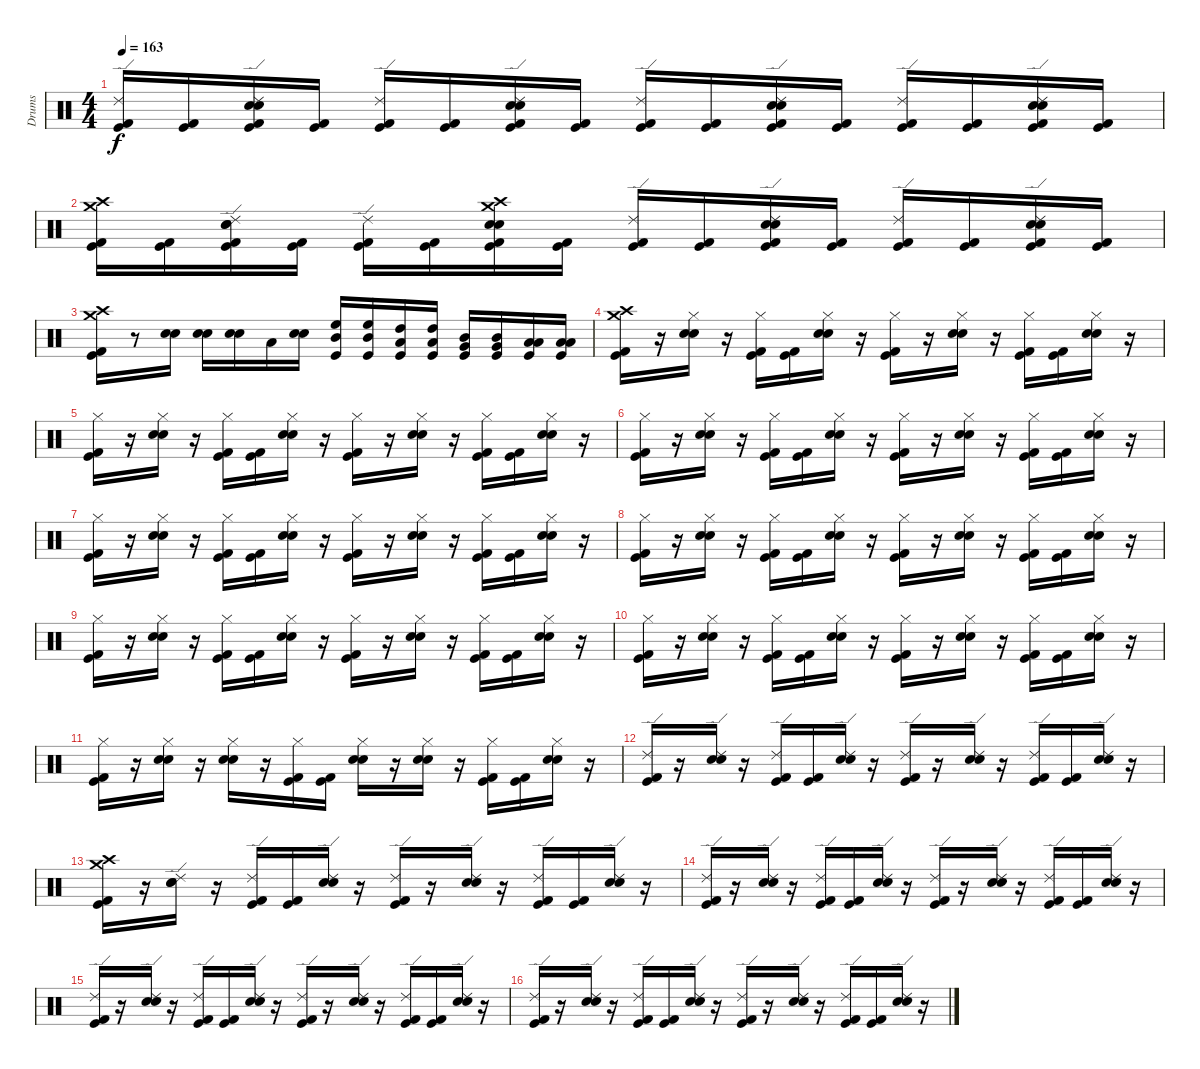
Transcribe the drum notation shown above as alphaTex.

\track ("Drums" "Drums") {instrument percussion}
\staff {score}
\articulation defaults
\ts (4 4)
\tempo 163
\clef neutral
\ks c
("Ride (edge) 2" "Kick (hit) 2" "Kick (hit)").16{dy f} ("Kick (hit) 2" "Kick (hit)").16 ("Electric Snare (hit)" "Snare (hit) 2" "Ride (edge) 2" "Kick (hit) 2" "Kick (hit)").16 ("Kick (hit) 2" "Kick (hit)").16 ("Ride (edge) 2" "Kick (hit) 2" "Kick (hit)").16 ("Kick (hit) 2" "Kick (hit)").16 ("Electric Snare (hit)" "Snare (hit) 2" "Ride (edge) 2" "Kick (hit)" "Kick (hit) 2").16 ("Kick (hit) 2" "Kick (hit)").16 ("Ride (edge) 2" "Kick (hit) 2" "Kick (hit)").16 ("Kick (hit) 2" "Kick (hit)").16 ("Electric Snare (hit)" "Snare (hit) 2" "Ride (edge) 2" "Kick (hit) 2" "Kick (hit)").16 ("Kick (hit) 2" "Kick (hit)").16 ("Ride (edge) 2" "Kick (hit) 2" "Kick (hit)").16 ("Kick (hit) 2" "Kick (hit)").16 ("Electric Snare (hit)" "Snare (hit) 2" "Ride (edge) 2" "Kick (hit) 2" "Kick (hit)").16 ("Kick (hit) 2" "Kick (hit)").16 |
("Crash high (hit)" "Crash medium (hit)" "Kick (hit) 2" "Kick (hit)").16 ("Kick (hit) 2" "Kick (hit)").16 ("Electric Snare (hit)" "Snare (hit) 2" "Ride (edge) 2" "Kick (hit) 2" "Kick (hit)").16 ("Kick (hit) 2" "Kick (hit)").16 ("Ride (edge) 2" "Kick (hit) 2" "Kick (hit)").16 ("Kick (hit) 2" "Kick (hit)").16 ("Crash high (hit)" "Crash medium (hit)" "Electric Snare (hit)" "Snare (hit) 2" "Kick (hit)" "Kick (hit) 2").16 ("Kick (hit) 2" "Kick (hit)").16 ("Ride (edge) 2" "Kick (hit) 2" "Kick (hit)").16 ("Kick (hit) 2" "Kick (hit)").16 ("Electric Snare (hit)" "Snare (hit) 2" "Ride (edge) 2" "Kick (hit) 2" "Kick (hit)").16 ("Kick (hit) 2" "Kick (hit)").16 ("Ride (edge) 2" "Kick (hit) 2" "Kick (hit)").16 ("Kick (hit) 2" "Kick (hit)").16 ("Electric Snare (hit)" "Snare (hit) 2" "Ride (edge) 2" "Kick (hit) 2" "Kick (hit)").16 ("Kick (hit) 2" "Kick (hit)").16 |
("Crash high (hit)" "Crash medium (hit)" "Kick (hit) 2" "Kick (hit)").16 r.8 ("Electric Snare (hit)" "Snare (hit) 2").16 ("Electric Snare (hit)" "Snare (hit) 2").16 ("Electric Snare (hit)" "Snare (hit) 2").16 "Low Tom (hit)".16 ("Snare (hit) 2" "Electric Snare (hit)").16 ("High Floor Tom (hit)" "Mid Tom (hit)" "Kick (hit)").16 ("High Floor Tom (hit)" "Mid Tom (hit)" "Kick (hit)").16 ("High Tom (hit)" "Low Tom (hit)" "Kick (hit)").16 ("High Tom (hit)" "Low Tom (hit)" "Kick (hit)").16 ("Very Low Tom (hit)" "Mid Tom (hit)" "Kick (hit)").16 ("Mid Tom (hit)" "Very Low Tom (hit)" "Kick (hit)").16 ("Low Tom (hit)" "Low Floor Tom (hit)" "Kick (hit)").16 ("Low Tom (hit)" "Low Floor Tom (hit)" "Kick (hit)").16 |
("Crash high (hit)" "Crash medium (hit)" "Kick (hit) 2" "Kick (hit)").16 r.16 ("Hi-Hat (closed)" "Electric Snare (hit)" "Snare (hit) 2").16 r.16 ("Kick (hit)" "Kick (hit) 2" "Hi-Hat (closed)").16 ("Kick (hit)" "Kick (hit) 2").16 ("Electric Snare (hit)" "Snare (hit) 2" "Hi-Hat (closed)").16 r.16 ("Kick (hit)" "Kick (hit) 2" "Hi-Hat (closed)").16 r.16 ("Electric Snare (hit)" "Snare (hit) 2" "Hi-Hat (closed)").16 r.16 ("Kick (hit) 2" "Kick (hit)" "Hi-Hat (closed)").16 ("Kick (hit) 2" "Kick (hit)").16 ("Electric Snare (hit)" "Snare (hit) 2" "Hi-Hat (closed)").16 r.16 |
("Hi-Hat (closed)" "Kick (hit) 2" "Kick (hit)").16 r.16 ("Hi-Hat (closed)" "Electric Snare (hit)" "Snare (hit) 2").16 r.16 ("Kick (hit)" "Kick (hit) 2" "Hi-Hat (closed)").16 ("Kick (hit)" "Kick (hit) 2").16 ("Electric Snare (hit)" "Snare (hit) 2" "Hi-Hat (closed)").16 r.16 ("Kick (hit)" "Kick (hit) 2" "Hi-Hat (closed)").16 r.16 ("Electric Snare (hit)" "Snare (hit) 2" "Hi-Hat (closed)").16 r.16 ("Kick (hit) 2" "Kick (hit)" "Hi-Hat (closed)").16 ("Kick (hit) 2" "Kick (hit)").16 ("Electric Snare (hit)" "Snare (hit) 2" "Hi-Hat (closed)").16 r.16 |
("Hi-Hat (closed)" "Kick (hit) 2" "Kick (hit)").16 r.16 ("Hi-Hat (closed)" "Electric Snare (hit)" "Snare (hit) 2").16 r.16 ("Kick (hit)" "Kick (hit) 2" "Hi-Hat (closed)").16 ("Kick (hit)" "Kick (hit) 2").16 ("Electric Snare (hit)" "Snare (hit) 2" "Hi-Hat (closed)").16 r.16 ("Kick (hit)" "Kick (hit) 2" "Hi-Hat (closed)").16 r.16 ("Electric Snare (hit)" "Snare (hit) 2" "Hi-Hat (closed)").16 r.16 ("Kick (hit) 2" "Kick (hit)" "Hi-Hat (closed)").16 ("Kick (hit) 2" "Kick (hit)").16 ("Electric Snare (hit)" "Snare (hit) 2" "Hi-Hat (closed)").16 r.16 |
("Hi-Hat (closed)" "Kick (hit) 2" "Kick (hit)").16 r.16 ("Hi-Hat (closed)" "Electric Snare (hit)" "Snare (hit) 2").16 r.16 ("Kick (hit)" "Kick (hit) 2" "Hi-Hat (closed)").16 ("Kick (hit)" "Kick (hit) 2").16 ("Electric Snare (hit)" "Snare (hit) 2" "Hi-Hat (closed)").16 r.16 ("Kick (hit)" "Kick (hit) 2" "Hi-Hat (closed)").16 r.16 ("Electric Snare (hit)" "Snare (hit) 2" "Hi-Hat (closed)").16 r.16 ("Kick (hit) 2" "Kick (hit)" "Hi-Hat (closed)").16 ("Kick (hit) 2" "Kick (hit)").16 ("Electric Snare (hit)" "Snare (hit) 2" "Hi-Hat (closed)").16 r.16 |
("Hi-Hat (closed)" "Kick (hit) 2" "Kick (hit)").16 r.16 ("Hi-Hat (closed)" "Electric Snare (hit)" "Snare (hit) 2").16 r.16 ("Kick (hit)" "Kick (hit) 2" "Hi-Hat (closed)").16 ("Kick (hit)" "Kick (hit) 2").16 ("Electric Snare (hit)" "Snare (hit) 2" "Hi-Hat (closed)").16 r.16 ("Kick (hit)" "Kick (hit) 2" "Hi-Hat (closed)").16 r.16 ("Electric Snare (hit)" "Snare (hit) 2" "Hi-Hat (closed)").16 r.16 ("Kick (hit) 2" "Kick (hit)" "Hi-Hat (closed)").16 ("Kick (hit) 2" "Kick (hit)").16 ("Electric Snare (hit)" "Snare (hit) 2" "Hi-Hat (closed)").16 r.16 |
("Hi-Hat (closed)" "Kick (hit) 2" "Kick (hit)").16 r.16 ("Hi-Hat (closed)" "Electric Snare (hit)" "Snare (hit) 2").16 r.16 ("Kick (hit)" "Kick (hit) 2" "Hi-Hat (closed)").16 ("Kick (hit)" "Kick (hit) 2").16 ("Electric Snare (hit)" "Snare (hit) 2" "Hi-Hat (closed)").16 r.16 ("Kick (hit)" "Kick (hit) 2" "Hi-Hat (closed)").16 r.16 ("Electric Snare (hit)" "Snare (hit) 2" "Hi-Hat (closed)").16 r.16 ("Kick (hit) 2" "Kick (hit)" "Hi-Hat (closed)").16 ("Kick (hit) 2" "Kick (hit)").16 ("Electric Snare (hit)" "Snare (hit) 2" "Hi-Hat (closed)").16 r.16 |
("Hi-Hat (closed)" "Kick (hit) 2" "Kick (hit)").16 r.16 ("Hi-Hat (closed)" "Electric Snare (hit)" "Snare (hit) 2").16 r.16 ("Kick (hit)" "Kick (hit) 2" "Hi-Hat (closed)").16 ("Kick (hit)" "Kick (hit) 2").16 ("Electric Snare (hit)" "Snare (hit) 2" "Hi-Hat (closed)").16 r.16 ("Kick (hit)" "Kick (hit) 2" "Hi-Hat (closed)").16 r.16 ("Electric Snare (hit)" "Snare (hit) 2" "Hi-Hat (closed)").16 r.16 ("Kick (hit) 2" "Kick (hit)" "Hi-Hat (closed)").16 ("Kick (hit) 2" "Kick (hit)").16 ("Electric Snare (hit)" "Snare (hit) 2" "Hi-Hat (closed)").16 r.16 |
("Hi-Hat (closed)" "Kick (hit) 2" "Kick (hit)").16 r.16 ("Hi-Hat (closed)" "Electric Snare (hit)" "Snare (hit) 2").16 r.16 ("Electric Snare (hit)" "Snare (hit) 2" "Hi-Hat (closed)").16 r.16 ("Kick (hit) 2" "Kick (hit)" "Hi-Hat (closed)").16 ("Kick (hit) 2" "Kick (hit)").16 ("Electric Snare (hit)" "Snare (hit) 2" "Hi-Hat (closed)").16 r.16 ("Electric Snare (hit)" "Snare (hit) 2" "Hi-Hat (closed)").16 r.16 ("Kick (hit) 2" "Kick (hit)" "Hi-Hat (closed)").16 ("Kick (hit) 2" "Kick (hit)").16 ("Electric Snare (hit)" "Snare (hit) 2" "Hi-Hat (closed)").16 r.16 |
("Ride (edge) 2" "Kick (hit) 2" "Kick (hit)").16 r.16 ("Ride (edge) 2" "Electric Snare (hit)" "Snare (hit) 2").16 r.16 ("Ride (edge) 2" "Kick (hit)" "Kick (hit) 2").16 ("Kick (hit)" "Kick (hit) 2").16 ("Ride (edge) 2" "Electric Snare (hit)" "Snare (hit) 2").16 r.16 ("Ride (edge) 2" "Kick (hit)" "Kick (hit) 2").16 r.16 ("Ride (edge) 2" "Electric Snare (hit)" "Snare (hit) 2").16 r.16 ("Ride (edge) 2" "Kick (hit) 2" "Kick (hit)").16 ("Kick (hit) 2" "Kick (hit)").16 ("Ride (edge) 2" "Electric Snare (hit)" "Snare (hit) 2").16 r.16 |
("Crash high (hit)" "Crash medium (hit)" "Kick (hit) 2" "Kick (hit)").16 r.16 ("Ride (edge) 2" "Electric Snare (hit)" "Snare (hit) 2").16 r.16 ("Ride (edge) 2" "Kick (hit)" "Kick (hit) 2").16 ("Kick (hit)" "Kick (hit) 2").16 ("Ride (edge) 2" "Electric Snare (hit)" "Snare (hit) 2").16 r.16 ("Ride (edge) 2" "Kick (hit)" "Kick (hit) 2").16 r.16 ("Ride (edge) 2" "Electric Snare (hit)" "Snare (hit) 2").16 r.16 ("Ride (edge) 2" "Kick (hit) 2" "Kick (hit)").16 ("Kick (hit) 2" "Kick (hit)").16 ("Ride (edge) 2" "Electric Snare (hit)" "Snare (hit) 2").16 r.16 |
("Ride (edge) 2" "Kick (hit) 2" "Kick (hit)").16 r.16 ("Ride (edge) 2" "Electric Snare (hit)" "Snare (hit) 2").16 r.16 ("Ride (edge) 2" "Kick (hit)" "Kick (hit) 2").16 ("Kick (hit)" "Kick (hit) 2").16 ("Ride (edge) 2" "Electric Snare (hit)" "Snare (hit) 2").16 r.16 ("Ride (edge) 2" "Kick (hit)" "Kick (hit) 2").16 r.16 ("Ride (edge) 2" "Electric Snare (hit)" "Snare (hit) 2").16 r.16 ("Ride (edge) 2" "Kick (hit) 2" "Kick (hit)").16 ("Kick (hit) 2" "Kick (hit)").16 ("Ride (edge) 2" "Electric Snare (hit)" "Snare (hit) 2").16 r.16 |
("Ride (edge) 2" "Kick (hit) 2" "Kick (hit)").16 r.16 ("Ride (edge) 2" "Electric Snare (hit)" "Snare (hit) 2").16 r.16 ("Ride (edge) 2" "Kick (hit)" "Kick (hit) 2").16 ("Kick (hit)" "Kick (hit) 2").16 ("Ride (edge) 2" "Electric Snare (hit)" "Snare (hit) 2").16 r.16 ("Ride (edge) 2" "Kick (hit)" "Kick (hit) 2").16 r.16 ("Ride (edge) 2" "Electric Snare (hit)" "Snare (hit) 2").16 r.16 ("Ride (edge) 2" "Kick (hit) 2" "Kick (hit)").16 ("Kick (hit) 2" "Kick (hit)").16 ("Ride (edge) 2" "Electric Snare (hit)" "Snare (hit) 2").16 r.16 |
("Ride (edge) 2" "Kick (hit) 2" "Kick (hit)").16 r.16 ("Ride (edge) 2" "Electric Snare (hit)" "Snare (hit) 2").16 r.16 ("Ride (edge) 2" "Kick (hit)" "Kick (hit) 2").16 ("Kick (hit)" "Kick (hit) 2").16 ("Ride (edge) 2" "Electric Snare (hit)" "Snare (hit) 2").16 r.16 ("Ride (edge) 2" "Kick (hit)" "Kick (hit) 2").16 r.16 ("Ride (edge) 2" "Electric Snare (hit)" "Snare (hit) 2").16 r.16 ("Ride (edge) 2" "Kick (hit) 2" "Kick (hit)").16 ("Kick (hit) 2" "Kick (hit)").16 ("Ride (edge) 2" "Electric Snare (hit)" "Snare (hit) 2").16 r.16
